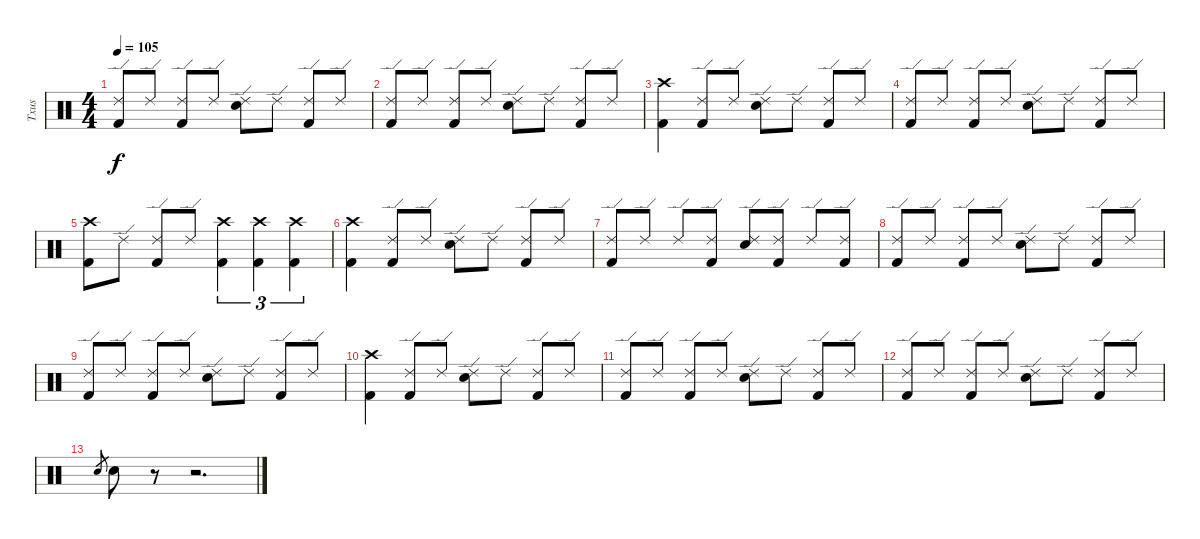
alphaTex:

\track ("Txus" "Txus") {instrument percussion}
\staff {score}
\articulation defaults
\ts (4 4)
\tempo 105
\clef neutral
\ks c
("Ride (edge) 2" "Kick (hit) 2").8{dy f} "Ride (edge) 2".8 ("Ride (edge) 2" "Kick (hit) 2").8 "Ride (edge) 2".8 ("Ride (edge) 2" "Electric Snare (hit)").8 "Ride (edge) 2".8 ("Ride (edge) 2" "Kick (hit) 2").8 "Ride (edge) 2".8 |
("Ride (edge) 2" "Kick (hit) 2").8 "Ride (edge) 2".8 ("Ride (edge) 2" "Kick (hit) 2").8 "Ride (edge) 2".8 ("Ride (edge) 2" "Electric Snare (hit)").8 "Ride (edge) 2".8 ("Ride (edge) 2" "Kick (hit) 2").8 "Ride (edge) 2".8 |
("Crash high (hit)" "Kick (hit) 2").4 ("Ride (edge) 2" "Kick (hit) 2").8 "Ride (edge) 2".8 ("Ride (edge) 2" "Electric Snare (hit)").8 "Ride (edge) 2".8 ("Ride (edge) 2" "Kick (hit) 2").8 "Ride (edge) 2".8 |
("Ride (edge) 2" "Kick (hit) 2").8 "Ride (edge) 2".8 ("Ride (edge) 2" "Kick (hit) 2").8 "Ride (edge) 2".8 ("Ride (edge) 2" "Electric Snare (hit)").8 "Ride (edge) 2".8 ("Ride (edge) 2" "Kick (hit) 2").8 "Ride (edge) 2".8 |
("Crash high (hit)" "Kick (hit) 2").8 "Ride (edge) 2".8 ("Ride (edge) 2" "Kick (hit) 2").8 "Ride (edge) 2".8 ("Crash high (hit)" "Kick (hit) 2").4{tu (3 2)} ("Crash high (hit)" "Kick (hit) 2").4{tu (3 2)} ("Crash high (hit)" "Kick (hit) 2").4{tu (3 2)} |
("Crash high (hit)" "Kick (hit) 2").4 ("Ride (edge) 2" "Kick (hit) 2").8 "Ride (edge) 2".8 ("Ride (edge) 2" "Electric Snare (hit)").8 "Ride (edge) 2".8 ("Ride (edge) 2" "Kick (hit) 2").8 "Ride (edge) 2".8 |
("Ride (edge) 2" "Kick (hit) 2").8 "Ride (edge) 2".8 "Ride (edge) 2".8 ("Ride (edge) 2" "Kick (hit) 2").8 ("Ride (edge) 2" "Electric Snare (hit)").8 ("Ride (edge) 2" "Kick (hit) 2").8 "Ride (edge) 2".8 ("Ride (edge) 2" "Kick (hit) 2").8 |
("Ride (edge) 2" "Kick (hit) 2").8 "Ride (edge) 2".8 ("Ride (edge) 2" "Kick (hit) 2").8 "Ride (edge) 2".8 ("Ride (edge) 2" "Electric Snare (hit)").8 "Ride (edge) 2".8 ("Ride (edge) 2" "Kick (hit) 2").8 "Ride (edge) 2".8 |
("Ride (edge) 2" "Kick (hit) 2").8 "Ride (edge) 2".8 ("Ride (edge) 2" "Kick (hit) 2").8 "Ride (edge) 2".8 ("Ride (edge) 2" "Electric Snare (hit)").8 "Ride (edge) 2".8 ("Ride (edge) 2" "Kick (hit) 2").8 "Ride (edge) 2".8 |
("Crash high (hit)" "Kick (hit) 2").4 ("Ride (edge) 2" "Kick (hit) 2").8 "Ride (edge) 2".8 ("Ride (edge) 2" "Electric Snare (hit)").8 "Ride (edge) 2".8 ("Ride (edge) 2" "Kick (hit) 2").8 "Ride (edge) 2".8 |
("Ride (edge) 2" "Kick (hit) 2").8 "Ride (edge) 2".8 ("Ride (edge) 2" "Kick (hit) 2").8 "Ride (edge) 2".8 ("Ride (edge) 2" "Electric Snare (hit)").8 "Ride (edge) 2".8 ("Ride (edge) 2" "Kick (hit) 2").8 "Ride (edge) 2".8 |
("Ride (edge) 2" "Kick (hit) 2").8 "Ride (edge) 2".8 ("Ride (edge) 2" "Kick (hit) 2").8 "Ride (edge) 2".8 ("Ride (edge) 2" "Electric Snare (hit)").8 "Ride (edge) 2".8 ("Ride (edge) 2" "Kick (hit) 2").8 "Ride (edge) 2".8 |
"Electric Snare (hit)".8{gr} "Electric Snare (hit)".8 r.8 r.2{d}
